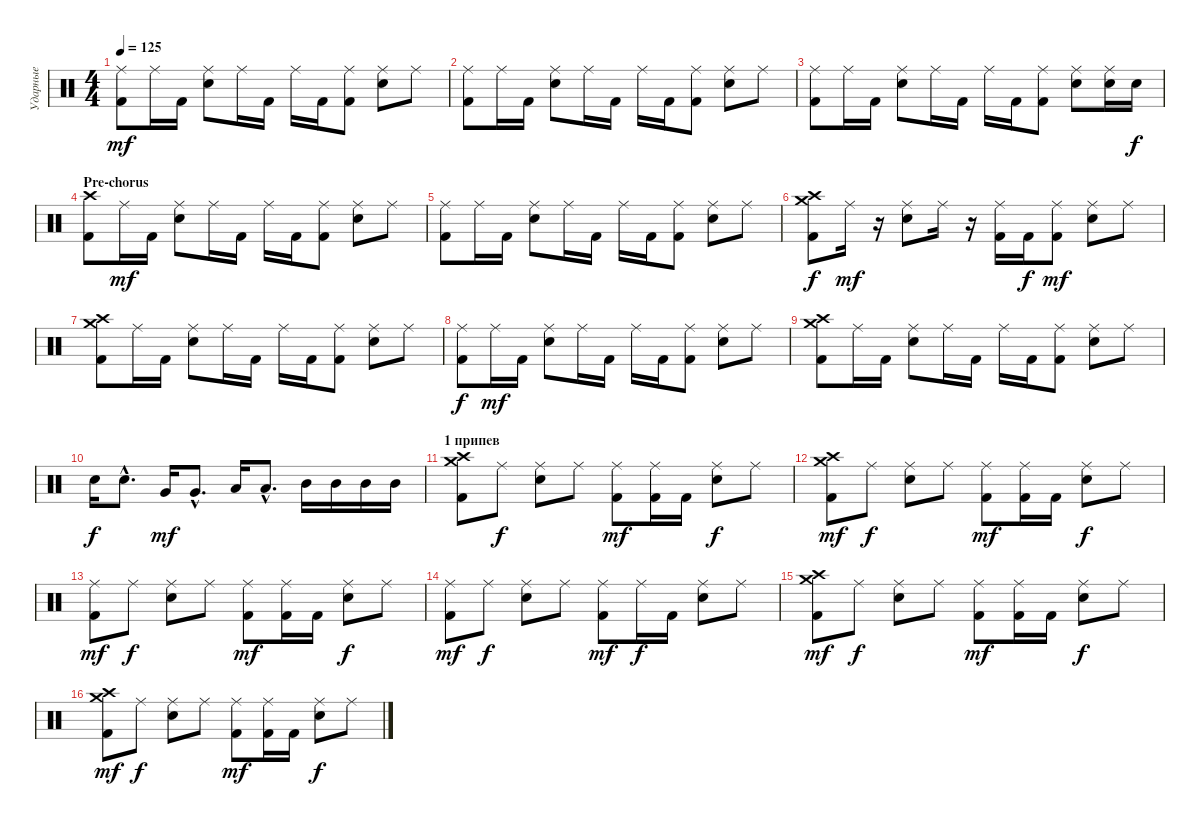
\track ("Ударные" "Ударные") {instrument percussion}
\staff {score}
\articulation defaults
\ts (4 4)
\tempo 125
\clef neutral
\ks c
("Ride (middle)" "Kick (hit) 2").8{dy mf} "Ride (middle)".16 "Kick (hit) 2".16 ("Ride (middle)" "Snare (hit) 2").8 "Ride (middle)".16 "Kick (hit) 2".16 "Ride (middle)".16 "Kick (hit) 2".16 ("Ride (middle)" "Kick (hit) 2").8 ("Ride (middle)" "Snare (hit) 2").8 "Ride (middle)".8 |
("Ride (middle)" "Kick (hit) 2").8 "Ride (middle)".16 "Kick (hit) 2".16 ("Ride (middle)" "Snare (hit) 2").8 "Ride (middle)".16 "Kick (hit) 2".16 "Ride (middle)".16 "Kick (hit) 2".16 ("Ride (middle)" "Kick (hit) 2").8 ("Ride (middle)" "Snare (hit) 2").8 "Ride (middle)".8 |
("Ride (middle)" "Kick (hit) 2").8 "Ride (middle)".16 "Kick (hit) 2".16 ("Ride (middle)" "Snare (hit) 2").8 "Ride (middle)".16 "Kick (hit) 2".16 "Ride (middle)".16 "Kick (hit) 2".16 ("Ride (middle)" "Kick (hit) 2").8 ("Ride (middle)" "Snare (hit) 2").8 ("Ride (middle)" "Snare (hit) 2").16 "Snare (hit) 2".16{dy f} |
\section ("" "Pre-chorus")
("Crash high (hit)" "Kick (hit) 2").8 "Ride (middle)".16{dy mf} "Kick (hit) 2".16 ("Ride (middle)" "Snare (hit) 2").8 "Ride (middle)".16 "Kick (hit) 2".16 "Ride (middle)".16 "Kick (hit) 2".16 ("Ride (middle)" "Kick (hit) 2").8 ("Ride (middle)" "Snare (hit) 2").8 "Ride (middle)".8 |
("Ride (middle)" "Kick (hit) 2").8 "Ride (middle)".16 "Kick (hit) 2".16 ("Ride (middle)" "Snare (hit) 2").8 "Ride (middle)".16 "Kick (hit) 2".16 "Ride (middle)".16 "Kick (hit) 2".16 ("Ride (middle)" "Kick (hit) 2").8 ("Ride (middle)" "Snare (hit) 2").8 "Ride (middle)".8 |
("Crash high (hit)" "Crash medium (hit)" "Kick (hit) 2").8{dy f} "Ride (middle)".16{dy mf} r.16 ("Ride (middle)" "Snare (hit) 2").8 "Ride (middle)".16 r.16 ("Ride (middle)" "Kick (hit) 2").16 "Kick (hit) 2".16{dy f} ("Ride (middle)" "Kick (hit) 2").8{dy mf} ("Ride (middle)" "Snare (hit) 2").8 "Ride (middle)".8 |
("Crash high (hit)" "Crash medium (hit)" "Kick (hit) 2").8 "Ride (middle)".16 "Kick (hit) 2".16 ("Ride (middle)" "Snare (hit) 2").8 "Ride (middle)".16 "Kick (hit) 2".16 "Ride (middle)".16 "Kick (hit) 2".16 ("Ride (middle)" "Kick (hit) 2").8 ("Ride (middle)" "Snare (hit) 2").8 "Ride (middle)".8 |
("Ride (middle)" "Kick (hit) 2").8{dy f} "Ride (middle)".16{dy mf} "Kick (hit) 2".16 ("Ride (middle)" "Snare (hit) 2").8 "Ride (middle)".16 "Kick (hit) 2".16 "Ride (middle)".16 "Kick (hit) 2".16 ("Ride (middle)" "Kick (hit) 2").8 ("Ride (middle)" "Snare (hit) 2").8 "Ride (middle)".8 |
("Crash high (hit)" "Crash medium (hit)" "Kick (hit) 2").8 "Ride (middle)".16 "Kick (hit) 2".16 ("Ride (middle)" "Snare (hit) 2").8 "Ride (middle)".16 "Kick (hit) 2".16 "Ride (middle)".16 "Kick (hit) 2".16 ("Ride (middle)" "Kick (hit) 2").8 ("Ride (middle)" "Snare (hit) 2").8 "Ride (middle)".8 |
"Snare (hit) 2".16{dy f} "Snare (hit) 2"{hac}.8{d} "Very Low Tom (hit)".16{dy mf} "Very Low Tom (hit)"{hac}.8{d} "Low Tom (hit)".16 "Low Tom (hit)"{hac}.8{d} "Mid Tom (hit)".16 "Mid Tom (hit)".16 "Mid Tom (hit)".16 "Mid Tom (hit)".16 |
\section ("" "1 припев")
("Crash high (hit)" "Crash medium (hit)" "Kick (hit) 2").8 "Ride (middle)".8{dy f} ("Ride (middle)" "Snare (hit) 2").8 "Ride (middle)".8 ("Ride (middle)" "Kick (hit) 2").8{dy mf} ("Ride (middle)" "Kick (hit) 2").16 "Kick (hit) 2".16 ("Ride (middle)" "Snare (hit) 2").8{dy f} "Ride (middle)".8 |
("Crash high (hit)" "Crash medium (hit)" "Kick (hit) 2").8{dy mf} "Ride (middle)".8{dy f} ("Ride (middle)" "Snare (hit) 2").8 "Ride (middle)".8 ("Ride (middle)" "Kick (hit) 2").8{dy mf} ("Ride (middle)" "Kick (hit) 2").16 "Kick (hit) 2".16 ("Ride (middle)" "Snare (hit) 2").8{dy f} "Ride (middle)".8 |
("Ride (middle)" "Kick (hit) 2").8{dy mf} "Ride (middle)".8{dy f} ("Ride (middle)" "Snare (hit) 2").8 "Ride (middle)".8 ("Ride (middle)" "Kick (hit) 2").8{dy mf} ("Ride (middle)" "Kick (hit) 2").16 "Kick (hit) 2".16 ("Ride (middle)" "Snare (hit) 2").8{dy f} "Ride (middle)".8 |
("Ride (middle)" "Kick (hit) 2").8{dy mf} "Ride (middle)".8{dy f} ("Ride (middle)" "Snare (hit) 2").8 "Ride (middle)".8 ("Ride (middle)" "Kick (hit) 2").8{dy mf} "Ride (middle)".16{dy f} "Kick (hit) 2".16 ("Ride (middle)" "Snare (hit) 2").8 "Ride (middle)".8 |
("Crash high (hit)" "Crash medium (hit)" "Kick (hit) 2").8{dy mf} "Ride (middle)".8{dy f} ("Ride (middle)" "Snare (hit) 2").8 "Ride (middle)".8 ("Ride (middle)" "Kick (hit) 2").8{dy mf} ("Ride (middle)" "Kick (hit) 2").16 "Kick (hit) 2".16 ("Ride (middle)" "Snare (hit) 2").8{dy f} "Ride (middle)".8 |
("Crash high (hit)" "Crash medium (hit)" "Kick (hit) 2").8{dy mf} "Ride (middle)".8{dy f} ("Ride (middle)" "Snare (hit) 2").8 "Ride (middle)".8 ("Ride (middle)" "Kick (hit) 2").8{dy mf} ("Ride (middle)" "Kick (hit) 2").16 "Kick (hit) 2".16 ("Ride (middle)" "Snare (hit) 2").8{dy f} "Ride (middle)".8
